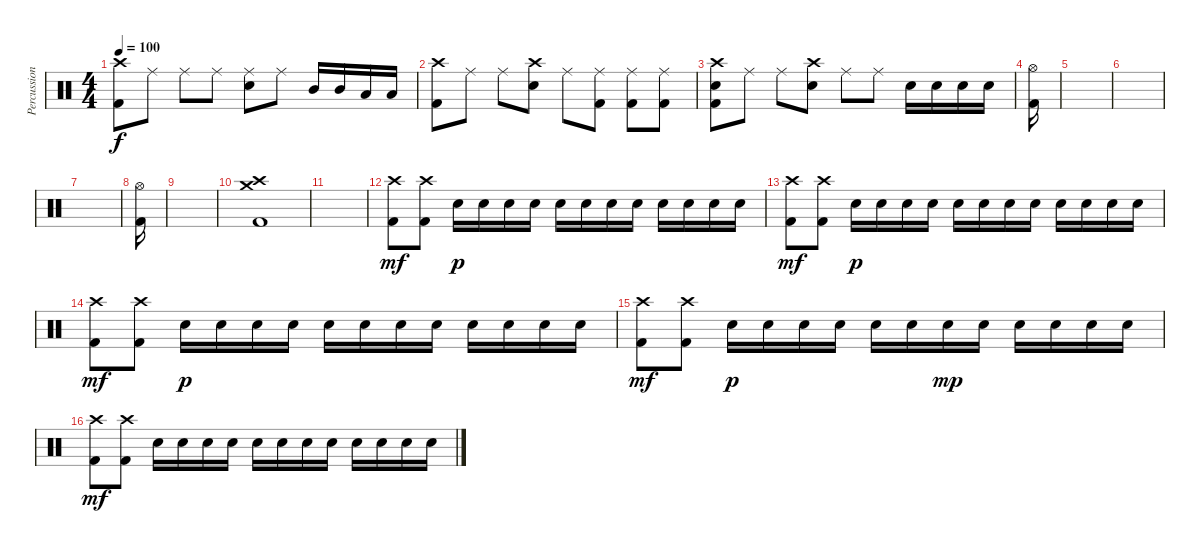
\track ("Percussion" "Percussion") {instrument percussion}
\staff {score}
\articulation defaults
\ts (4 4)
\tempo 100
\clef neutral
\ks c
("Crash high (hit)" "Kick (hit) 2").8{dy f} "Ride (middle)".8 "Ride (middle)".8 "Ride (middle)".8 ("Ride (middle)" "Electric Snare (hit)").8 "Ride (middle)".8 "Mid Tom (hit)".16 "Mid Tom (hit)".16 "Low Tom (hit)".16 "Low Tom (hit)".16 |
("Crash high (hit)" "Kick (hit) 2").8 "Ride (middle)".8 "Ride (middle)".8 ("Crash high (hit)" "Electric Snare (hit)").8 "Ride (middle)".8 ("Ride (middle)" "Kick (hit) 2").8 ("Ride (middle)" "Kick (hit) 2").8 ("Ride (middle)" "Kick (hit) 2").8 |
("Crash high (hit)" "Electric Snare (hit)" "Kick (hit) 2").8 "Ride (middle)".8 "Ride (middle)".8 ("Crash high (hit)" "Electric Snare (hit)").8 "Ride (middle)".8 "Ride (middle)".8 "Electric Snare (hit)".16 "Electric Snare (hit)".16 "Electric Snare (hit)".16 "Electric Snare (hit)".16 |
("Hi-Hat (open)" "Kick (hit) 2").16 |
|
|
|
("Hi-Hat (open)" "Kick (hit) 2").16 |
|
("Crash medium (hit)" "Crash high (hit)" "Kick (hit) 2").1 |
|
("Crash high (hit)" "Kick (hit) 2").8{dy mf} ("Crash high (hit)" "Kick (hit) 2").8 "Electric Snare (hit)".16{dy p} "Electric Snare (hit)".16 "Electric Snare (hit)".16 "Electric Snare (hit)".16 "Electric Snare (hit)".16 "Electric Snare (hit)".16 "Electric Snare (hit)".16 "Electric Snare (hit)".16 "Electric Snare (hit)".16 "Electric Snare (hit)".16 "Electric Snare (hit)".16 "Electric Snare (hit)".16 |
("Crash high (hit)" "Kick (hit) 2").8{dy mf} ("Crash high (hit)" "Kick (hit) 2").8 "Electric Snare (hit)".16{dy p} "Electric Snare (hit)".16 "Electric Snare (hit)".16 "Electric Snare (hit)".16 "Electric Snare (hit)".16 "Electric Snare (hit)".16 "Electric Snare (hit)".16 "Electric Snare (hit)".16 "Electric Snare (hit)".16 "Electric Snare (hit)".16 "Electric Snare (hit)".16 "Electric Snare (hit)".16 |
("Crash high (hit)" "Kick (hit) 2").8{dy mf} ("Crash high (hit)" "Kick (hit) 2").8 "Electric Snare (hit)".16{dy p} "Electric Snare (hit)".16 "Electric Snare (hit)".16 "Electric Snare (hit)".16 "Electric Snare (hit)".16 "Electric Snare (hit)".16 "Electric Snare (hit)".16 "Electric Snare (hit)".16 "Electric Snare (hit)".16 "Electric Snare (hit)".16 "Electric Snare (hit)".16 "Electric Snare (hit)".16 |
("Crash high (hit)" "Kick (hit) 2").8{dy mf} ("Crash high (hit)" "Kick (hit) 2").8 "Electric Snare (hit)".16{dy p} "Electric Snare (hit)".16 "Electric Snare (hit)".16 "Electric Snare (hit)".16 "Electric Snare (hit)".16 "Electric Snare (hit)".16 "Electric Snare (hit)".16{dy mp} "Electric Snare (hit)".16 "Electric Snare (hit)".16 "Electric Snare (hit)".16 "Electric Snare (hit)".16 "Electric Snare (hit)".16 |
("Crash high (hit)" "Kick (hit) 2").8{dy mf} ("Crash high (hit)" "Kick (hit) 2").8 "Electric Snare (hit)".16 "Electric Snare (hit)".16 "Electric Snare (hit)".16 "Electric Snare (hit)".16 "Electric Snare (hit)".16 "Electric Snare (hit)".16 "Electric Snare (hit)".16 "Electric Snare (hit)".16 "Electric Snare (hit)".16 "Electric Snare (hit)".16 "Electric Snare (hit)".16 "Electric Snare (hit)".16
